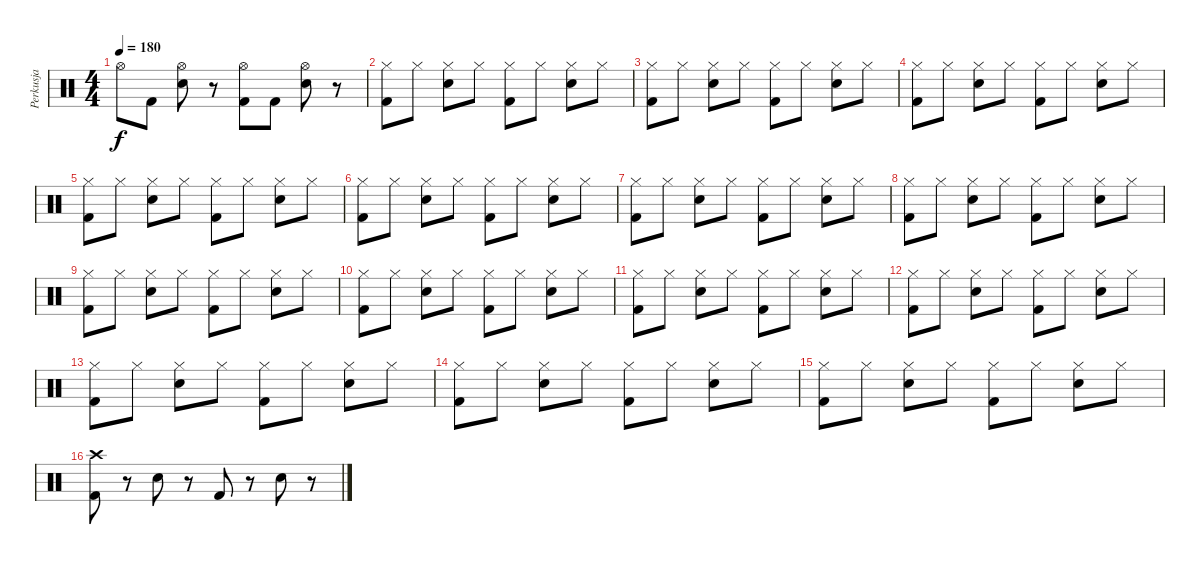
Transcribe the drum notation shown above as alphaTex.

\track ("Perkusja" "Perkusja") {instrument percussion}
\staff {score}
\articulation defaults
\ts (4 4)
\tempo 180
\clef neutral
\ks c "Hi-Hat (open)".8{dy f} "Kick (hit) 2".8
("Hi-Hat (open)" "Electric Snare (hit)").8 r.8 ("Hi-Hat (open)" "Kick (hit) 2").8 "Kick (hit) 2".8 ("Hi-Hat (open)" "Electric Snare (hit)").8 r.8 |
("Hi-Hat (closed)" "Kick (hit) 2").8 "Hi-Hat (closed)".8 ("Hi-Hat (closed)" "Electric Snare (hit)").8 "Hi-Hat (closed)".8 ("Hi-Hat (closed)" "Kick (hit) 2").8 "Hi-Hat (closed)".8 ("Hi-Hat (closed)" "Electric Snare (hit)").8 "Hi-Hat (closed)".8 |
("Hi-Hat (closed)" "Kick (hit) 2").8 "Hi-Hat (closed)".8 ("Hi-Hat (closed)" "Electric Snare (hit)").8 "Hi-Hat (closed)".8 ("Hi-Hat (closed)" "Kick (hit) 2").8 "Hi-Hat (closed)".8 ("Hi-Hat (closed)" "Electric Snare (hit)").8 "Hi-Hat (closed)".8 |
("Hi-Hat (closed)" "Kick (hit) 2").8 "Hi-Hat (closed)".8 ("Hi-Hat (closed)" "Electric Snare (hit)").8 "Hi-Hat (closed)".8 ("Hi-Hat (closed)" "Kick (hit) 2").8 "Hi-Hat (closed)".8 ("Hi-Hat (closed)" "Electric Snare (hit)").8 "Hi-Hat (closed)".8 |
("Hi-Hat (closed)" "Kick (hit) 2").8 "Hi-Hat (closed)".8 ("Hi-Hat (closed)" "Electric Snare (hit)").8 "Hi-Hat (closed)".8 ("Hi-Hat (closed)" "Kick (hit) 2").8 "Hi-Hat (closed)".8 ("Hi-Hat (closed)" "Electric Snare (hit)").8 "Hi-Hat (closed)".8 |
("Hi-Hat (closed)" "Kick (hit) 2").8 "Hi-Hat (closed)".8 ("Hi-Hat (closed)" "Electric Snare (hit)").8 "Hi-Hat (closed)".8 ("Hi-Hat (closed)" "Kick (hit) 2").8 "Hi-Hat (closed)".8 ("Hi-Hat (closed)" "Electric Snare (hit)").8 "Hi-Hat (closed)".8 |
("Hi-Hat (closed)" "Kick (hit) 2").8 "Hi-Hat (closed)".8 ("Hi-Hat (closed)" "Electric Snare (hit)").8 "Hi-Hat (closed)".8 ("Hi-Hat (closed)" "Kick (hit) 2").8 "Hi-Hat (closed)".8 ("Hi-Hat (closed)" "Electric Snare (hit)").8 "Hi-Hat (closed)".8 |
("Hi-Hat (closed)" "Kick (hit) 2").8 "Hi-Hat (closed)".8 ("Hi-Hat (closed)" "Electric Snare (hit)").8 "Hi-Hat (closed)".8 ("Hi-Hat (closed)" "Kick (hit) 2").8 "Hi-Hat (closed)".8 ("Hi-Hat (closed)" "Electric Snare (hit)").8 "Hi-Hat (closed)".8 |
("Hi-Hat (closed)" "Kick (hit) 2").8 "Hi-Hat (closed)".8 ("Hi-Hat (closed)" "Electric Snare (hit)").8 "Hi-Hat (closed)".8 ("Hi-Hat (closed)" "Kick (hit) 2").8 "Hi-Hat (closed)".8 ("Hi-Hat (closed)" "Electric Snare (hit)").8 "Hi-Hat (closed)".8 |
("Hi-Hat (closed)" "Kick (hit) 2").8 "Hi-Hat (closed)".8 ("Hi-Hat (closed)" "Electric Snare (hit)").8 "Hi-Hat (closed)".8 ("Hi-Hat (closed)" "Kick (hit) 2").8 "Hi-Hat (closed)".8 ("Hi-Hat (closed)" "Electric Snare (hit)").8 "Hi-Hat (closed)".8 |
("Hi-Hat (closed)" "Kick (hit) 2").8 "Hi-Hat (closed)".8 ("Hi-Hat (closed)" "Electric Snare (hit)").8 "Hi-Hat (closed)".8 ("Hi-Hat (closed)" "Kick (hit) 2").8 "Hi-Hat (closed)".8 ("Hi-Hat (closed)" "Electric Snare (hit)").8 "Hi-Hat (closed)".8 |
("Hi-Hat (closed)" "Kick (hit) 2").8 "Hi-Hat (closed)".8 ("Hi-Hat (closed)" "Electric Snare (hit)").8 "Hi-Hat (closed)".8 ("Hi-Hat (closed)" "Kick (hit) 2").8 "Hi-Hat (closed)".8 ("Hi-Hat (closed)" "Electric Snare (hit)").8 "Hi-Hat (closed)".8 |
("Hi-Hat (closed)" "Kick (hit) 2").8 "Hi-Hat (closed)".8 ("Hi-Hat (closed)" "Electric Snare (hit)").8 "Hi-Hat (closed)".8 ("Hi-Hat (closed)" "Kick (hit) 2").8 "Hi-Hat (closed)".8 ("Hi-Hat (closed)" "Electric Snare (hit)").8 "Hi-Hat (closed)".8 |
("Hi-Hat (closed)" "Kick (hit) 2").8 "Hi-Hat (closed)".8 ("Hi-Hat (closed)" "Electric Snare (hit)").8 "Hi-Hat (closed)".8 ("Hi-Hat (closed)" "Kick (hit) 2").8 "Hi-Hat (closed)".8 ("Hi-Hat (closed)" "Electric Snare (hit)").8 "Hi-Hat (closed)".8 |
("Hi-Hat (closed)" "Kick (hit) 2").8 "Hi-Hat (closed)".8 ("Hi-Hat (closed)" "Electric Snare (hit)").8 "Hi-Hat (closed)".8 ("Hi-Hat (closed)" "Kick (hit) 2").8 "Hi-Hat (closed)".8 ("Hi-Hat (closed)" "Electric Snare (hit)").8 "Hi-Hat (closed)".8 |
("Crash high (hit)" "Kick (hit) 2").8 r.8 "Electric Snare (hit)".8 r.8 "Kick (hit) 2".8 r.8 "Electric Snare (hit)".8 r.8
